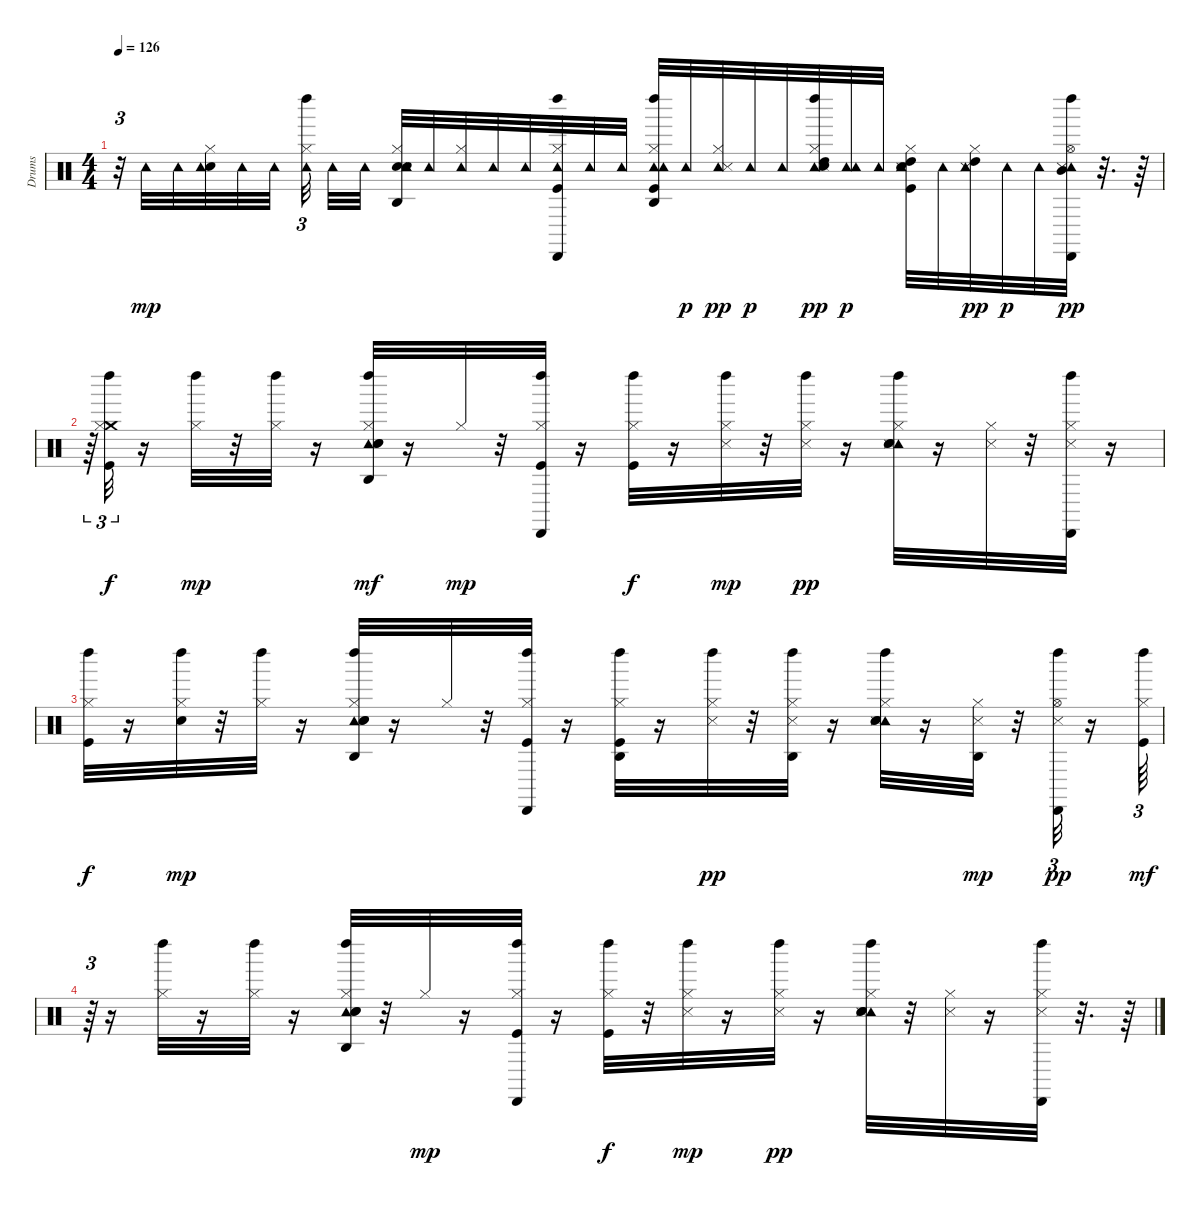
\track ("Drums" "Drums") {instrument percussion}
\staff {score}
\articulation defaults
\ts (4 4)
\tempo 126
\clef neutral
\ks c
r.32{tu (3 2) dy mf} "Tambourine (hit)".32{dy mp} "Tambourine (hit)".32 ("Electric Snare (hit)" "Hi-Hat (closed)" "Tambourine (hit)").32 "Tambourine (hit)".32 "Tambourine (hit)".32{beam splitsecondary} ("Left Maraca (hit)" "Tambourine (hit)" "Hi-Hat (closed)").32{tu (3 2) beam splitsecondary} "Tambourine (hit)".32 "Tambourine (hit)".32 ("Snare (hit) 2" "Tambourine (hit)" "Hi-Hat (closed)" "Agogo high (hit)" "Hand Clap (hit)" "Tambourine (hit)").32 "Tambourine (hit)".32 ("Tambourine (hit)" "Hi-Hat (closed)").32 "Tambourine (hit)".32 "Tambourine (hit)".32 ("Kick (hit)" "Hi-Hat (closed)" "Left Maraca (hit)" "Tambourine (hit)" "Cabasa (hit)").32 "Tambourine (hit)".32 "Tambourine (hit)".32 ("Tambourine (hit)" "Kick (hit)" "Hi-Hat (closed)" "Left Maraca (hit)" "Agogo high (hit)" "Tambourine (hit)").32 "Tambourine (hit)".32{dy p} ("Tambourine (hit)" "Hi-Hat (closed)" "Snare (side stick) 3").32{dy pp} "Tambourine (hit)".32{dy p} "Tambourine (hit)".32 ("Tambourine (hit)" "Snare (hit) 2" "Hi-Hat (closed)" "High Tom (hit)" "Left Maraca (hit)" "Snare (side stick) 3").32{dy pp} ("Tambourine (hit)" "Tambourine (hit)").32{dy p} "Tambourine (hit)".32 ("Hi-Hat (closed)" "High Tom (hit)" "Hand Clap (hit)" "Kick (hit)" "Snare (side stick) 3" "Tambourine (hit)").32 "Tambourine (hit)".32 ("Tambourine (hit)" "Hi-Hat (closed)" "High Tom (hit)" "Snare (side stick) 3").32{dy pp} "Tambourine (hit)".32{dy p} "Tambourine (hit)".32 ("Tambourine (hit)" "Hi-Hat (open)" "Mid Tom (hit)" "Left Maraca (hit)" "Cabasa (hit)" "Snare (side stick) 3").32{dy pp} r.32{d} r.64 |
r.64{tu (3 2)} ("Crash medium (hit)" "Kick (hit)" "Hi-Hat (closed)" "Left Maraca (hit)").32{tu (3 2) dy f} r.16 ("Hi-Hat (closed)" "Left Maraca (hit)").32{dy mp} r.32 ("Hi-Hat (closed)" "Left Maraca (hit)").32 r.16 ("Hi-Hat (closed)" "Tambourine (hit)" "Agogo high (hit)" "Snare (hit) 2" "Left Maraca (hit)" "Hand Clap (hit)").32{dy mf} r.16 "Hi-Hat (closed)".32{dy mp} r.32 ("Cabasa (hit)" "Kick (hit)" "Hi-Hat (closed)" "Left Maraca (hit)").32 r.16 ("Hi-Hat (closed)" "Kick (hit)" "Left Maraca (hit)").32{dy f} r.16 ("Hi-Hat (closed)" "Snare (side stick) 3" "Left Maraca (hit)").32{dy mp} r.32 ("Hi-Hat (closed)" "Left Maraca (hit)" "Snare (side stick) 3").32{dy pp} r.16 ("Hi-Hat (closed)" "Tambourine (hit)" "Hand Clap (hit)" "Snare (hit) 2" "Snare (side stick) 3" "Left Maraca (hit)").32 r.16 ("Hi-Hat (closed)" "Snare (side stick) 3").32 r.32 ("Cabasa (hit)" "Hi-Hat (closed)" "Snare (side stick) 3" "Left Maraca (hit)").32 r.16 |
("Left Maraca (hit)" "Kick (hit)" "Hi-Hat (closed)").32{dy f} r.16 ("Electric Snare (hit)" "Left Maraca (hit)" "Hi-Hat (closed)").32{dy mp} r.32 ("Left Maraca (hit)" "Hi-Hat (closed)").32 r.16 ("Left Maraca (hit)" "Tambourine (hit)" "Snare (hit) 2" "Hi-Hat (closed)" "Agogo high (hit)" "Hand Clap (hit)").32 r.16 "Hi-Hat (closed)".32 r.32 ("Kick (hit)" "Hi-Hat (closed)" "Left Maraca (hit)" "Cabasa (hit)").32 r.16 ("Kick (hit)" "Hi-Hat (closed)" "Left Maraca (hit)" "Agogo high (hit)").32 r.16 ("Hi-Hat (closed)" "Left Maraca (hit)" "Snare (side stick) 3").32{dy pp} r.32 ("Hi-Hat (closed)" "Left Maraca (hit)" "Agogo high (hit)" "Snare (side stick) 3").32 r.16 ("Hi-Hat (closed)" "Tambourine (hit)" "Hand Clap (hit)" "Snare (hit) 2" "Snare (side stick) 3" "Left Maraca (hit)").32 r.16 ("Hi-Hat (closed)" "Snare (side stick) 3" "Agogo high (hit)").32{dy mp} r.32 ("Hi-Hat (open)" "Cabasa (hit)" "Snare (side stick) 3" "Left Maraca (hit)").32{tu (3 2) dy pp} r.16 ("Kick (hit)" "Hi-Hat (closed)" "Left Maraca (hit)").64{tu (3 2) dy mf} |
r.64{tu (3 2)} r.16 ("Hi-Hat (closed)" "Left Maraca (hit)").32 r.16 ("Hi-Hat (closed)" "Left Maraca (hit)").32 r.16 ("Hi-Hat (closed)" "Tambourine (hit)" "Agogo high (hit)" "Snare (hit) 2" "Left Maraca (hit)" "Hand Clap (hit)").32 r.32 "Hi-Hat (closed)".32{dy mp} r.16 ("Cabasa (hit)" "Kick (hit)" "Hi-Hat (closed)" "Left Maraca (hit)").32 r.16 ("Hi-Hat (closed)" "Kick (hit)" "Left Maraca (hit)").32{dy f} r.32 ("Hi-Hat (closed)" "Snare (side stick) 3" "Left Maraca (hit)").32{dy mp} r.16 ("Hi-Hat (closed)" "Left Maraca (hit)" "Snare (side stick) 3").32{dy pp} r.16 ("Hi-Hat (closed)" "Tambourine (hit)" "Hand Clap (hit)" "Snare (hit) 2" "Snare (side stick) 3" "Left Maraca (hit)").32 r.32 ("Hi-Hat (closed)" "Snare (side stick) 3").32 r.16 ("Cabasa (hit)" "Hi-Hat (closed)" "Snare (side stick) 3" "Left Maraca (hit)").32 r.32{d} r.64
